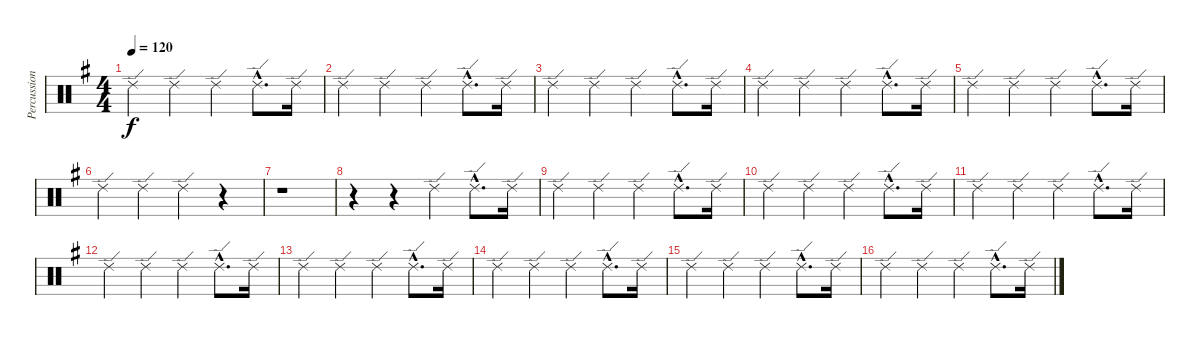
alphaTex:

\track ("Percussioni" "Percussion") {instrument percussion}
\staff {score}
\articulation defaults
\ts (4 4)
\tempo 120
\clef neutral
\ks eminor "Ride (edge) 2".4{dy f} "Ride (edge) 2".4 "Ride (edge) 2".4 "Ride (edge) 2"{hac}.8{d} "Ride (edge) 2".16
|
"Ride (edge) 2".4 "Ride (edge) 2".4 "Ride (edge) 2".4 "Ride (edge) 2"{hac}.8{d} "Ride (edge) 2".16 |
"Ride (edge) 2".4 "Ride (edge) 2".4 "Ride (edge) 2".4 "Ride (edge) 2"{hac}.8{d} "Ride (edge) 2".16 |
"Ride (edge) 2".4 "Ride (edge) 2".4 "Ride (edge) 2".4 "Ride (edge) 2"{hac}.8{d} "Ride (edge) 2".16 |
"Ride (edge) 2".4 "Ride (edge) 2".4 "Ride (edge) 2".4 "Ride (edge) 2"{hac}.8{d} "Ride (edge) 2".16 |
"Ride (edge) 2".4 "Ride (edge) 2".4 "Ride (edge) 2".4 r.4 |
r.1 |
r.4 r.4 "Ride (edge) 2".4 "Ride (edge) 2"{hac}.8{d} "Ride (edge) 2".16 |
"Ride (edge) 2".4 "Ride (edge) 2".4 "Ride (edge) 2".4 "Ride (edge) 2"{hac}.8{d} "Ride (edge) 2".16 |
"Ride (edge) 2".4 "Ride (edge) 2".4 "Ride (edge) 2".4 "Ride (edge) 2"{hac}.8{d} "Ride (edge) 2".16 |
"Ride (edge) 2".4 "Ride (edge) 2".4 "Ride (edge) 2".4 "Ride (edge) 2"{hac}.8{d} "Ride (edge) 2".16 |
"Ride (edge) 2".4 "Ride (edge) 2".4 "Ride (edge) 2".4 "Ride (edge) 2"{hac}.8{d} "Ride (edge) 2".16 |
"Ride (edge) 2".4 "Ride (edge) 2".4 "Ride (edge) 2".4 "Ride (edge) 2"{hac}.8{d} "Ride (edge) 2".16 |
"Ride (edge) 2".4 "Ride (edge) 2".4 "Ride (edge) 2".4 "Ride (edge) 2"{hac}.8{d} "Ride (edge) 2".16 |
"Ride (edge) 2".4 "Ride (edge) 2".4 "Ride (edge) 2".4 "Ride (edge) 2"{hac}.8{d} "Ride (edge) 2".16 |
"Ride (edge) 2".4 "Ride (edge) 2".4 "Ride (edge) 2".4 "Ride (edge) 2"{hac}.8{d} "Ride (edge) 2".16
